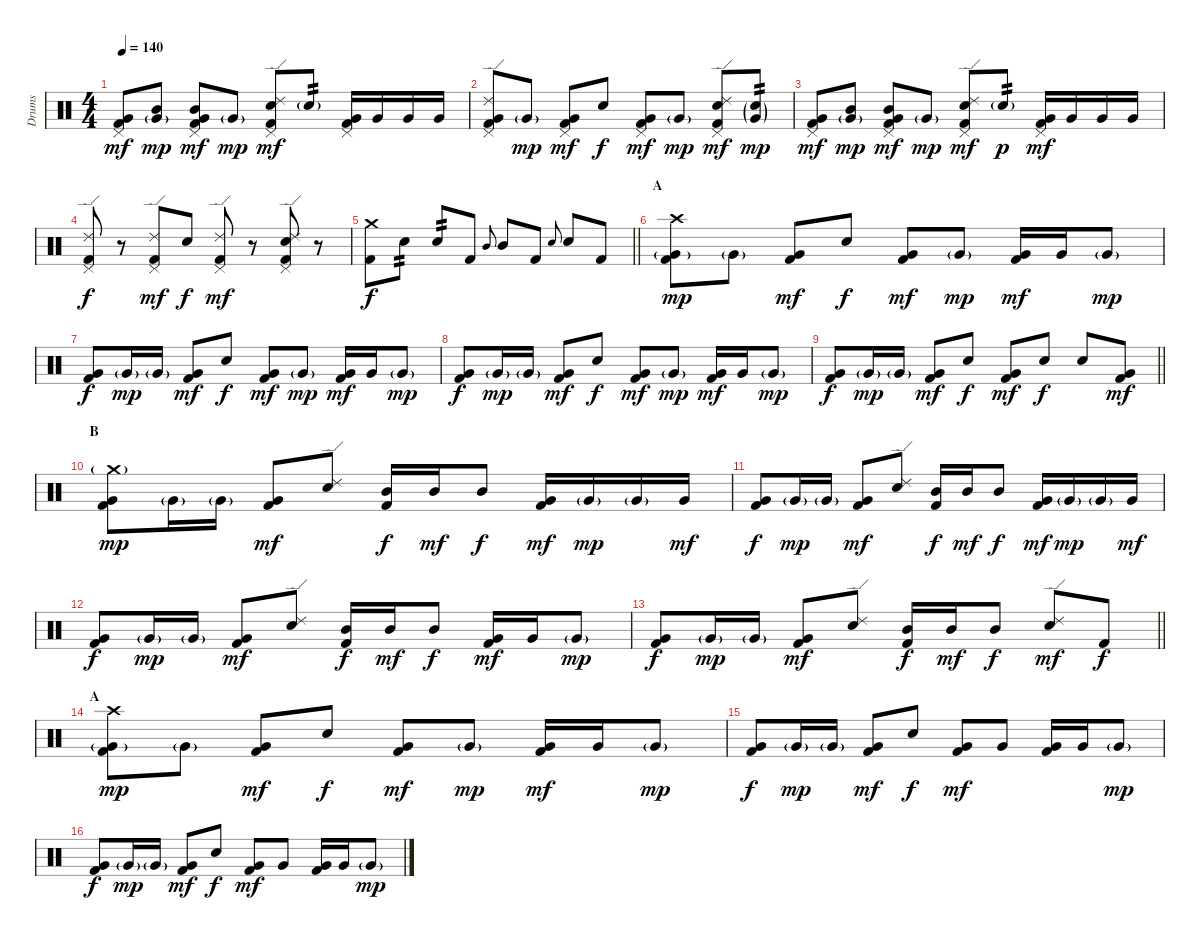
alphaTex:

\track ("Drums" "Drums") {instrument percussion}
\staff {score}
\articulation defaults
\ts (4 4)
\tempo 140
\clef neutral
\ks c
("Pedal Hi-Hat (hit)" "Very Low Tom (hit)" "Kick (hit) 2").8{dy mf} ("Mid Tom (hit)" "Very Low Tom (hit)"{g}).8{dy mp} ("Pedal Hi-Hat (hit)" "Mid Tom (hit)" "Very Low Tom (hit)" "Kick (hit) 2").8{dy mf} "Very Low Tom (hit)"{g}.8{dy mp} ("Ride (edge) 2" "Pedal Hi-Hat (hit)" "Snare (hit) 2" "Kick (hit) 2").8{dy mf} "Snare (hit) 2"{g}.8{tp 2} ("Pedal Hi-Hat (hit)" "Very Low Tom (hit)" "Kick (hit) 2").16 "Very Low Tom (hit)".16 "Very Low Tom (hit)".16 "Very Low Tom (hit)".16 |
("Ride (edge) 2" "Pedal Hi-Hat (hit)" "Very Low Tom (hit)" "Kick (hit) 2").8 "Very Low Tom (hit)"{g}.8{dy mp} ("Pedal Hi-Hat (hit)" "Very Low Tom (hit)" "Kick (hit) 2").8{dy mf} "Snare (hit) 2".8{dy f} ("Pedal Hi-Hat (hit)" "Very Low Tom (hit)" "Kick (hit) 2").8{dy mf} "Very Low Tom (hit)"{g}.8{dy mp} ("Ride (edge) 2" "Pedal Hi-Hat (hit)" "Snare (hit) 2" "Kick (hit) 2").8{dy mf} ("Snare (hit) 2"{g} "Very Low Tom (hit)"{g}).8{tp 2 dy mp} |
("Pedal Hi-Hat (hit)" "Very Low Tom (hit)" "Kick (hit) 2").8{dy mf} ("Mid Tom (hit)" "Very Low Tom (hit)"{g}).8{dy mp} ("Pedal Hi-Hat (hit)" "Mid Tom (hit)" "Very Low Tom (hit)" "Kick (hit) 2").8{dy mf} "Very Low Tom (hit)"{g}.8{dy mp} ("Ride (edge) 2" "Pedal Hi-Hat (hit)" "Snare (hit) 2" "Kick (hit) 2").8{dy mf} "Snare (hit) 2"{g}.8{tp 2 dy p} ("Pedal Hi-Hat (hit)" "Very Low Tom (hit)" "Kick (hit) 2").16{dy mf} "Very Low Tom (hit)".16 "Very Low Tom (hit)".16 "Very Low Tom (hit)".16 |
("Ride (edge) 2" "Pedal Hi-Hat (hit)" "Kick (hit) 2").8{dy f} r.8 ("Ride (edge) 2" "Pedal Hi-Hat (hit)" "Kick (hit) 2").8{dy mf} "Snare (hit) 2".8{dy f} ("Ride (edge) 2" "Pedal Hi-Hat (hit)" "Kick (hit) 2").8{dy mf} r.8 ("Ride (edge) 2" "Pedal Hi-Hat (hit)" "Snare (hit) 2" "Kick (hit) 2").8 r.8 |
\barLineRight lightlight
("Crash medium (hit)" "Kick (hit) 2").8{dy f} "Snare (hit) 2".8{tp 2} "Snare (hit) 2".8{tp 2} "Kick (hit) 2".8 "Mid Tom (hit)".8{gr onbeat} "Mid Tom (hit)".8 "Kick (hit) 2".8 "Snare (hit) 2".8{gr onbeat} "Snare (hit) 2".8 "Kick (hit) 2".8 |
\section ("" "A")
("Crash high (hit)" "Very Low Tom (hit)"{g} "Kick (hit) 2").8{dy mp} "Very Low Tom (hit)"{g}.8 ("Very Low Tom (hit)" "Kick (hit) 2").8{dy mf} "Snare (hit) 2".8{dy f} ("Very Low Tom (hit)" "Kick (hit) 2").8{dy mf} "Very Low Tom (hit)"{g}.8{dy mp} ("Very Low Tom (hit)" "Kick (hit) 2").16{dy mf} "Very Low Tom (hit)".16 "Very Low Tom (hit)"{g}.8{dy mp} |
("Very Low Tom (hit)" "Kick (hit) 2").8{dy f} "Very Low Tom (hit)"{g}.16{dy mp} "Very Low Tom (hit)"{g}.16 ("Very Low Tom (hit)" "Kick (hit) 2").8{dy mf} "Snare (hit) 2".8{dy f} ("Very Low Tom (hit)" "Kick (hit) 2").8{dy mf} "Very Low Tom (hit)"{g}.8{dy mp} ("Very Low Tom (hit)" "Kick (hit) 2").16{dy mf} "Very Low Tom (hit)".16 "Very Low Tom (hit)"{g}.8{dy mp} |
("Very Low Tom (hit)" "Kick (hit) 2").8{dy f} "Very Low Tom (hit)"{g}.16{dy mp} "Very Low Tom (hit)"{g}.16 ("Very Low Tom (hit)" "Kick (hit) 2").8{dy mf} "Snare (hit) 2".8{dy f} ("Very Low Tom (hit)" "Kick (hit) 2").8{dy mf} "Very Low Tom (hit)"{g}.8{dy mp} ("Very Low Tom (hit)" "Kick (hit) 2").16{dy mf} "Very Low Tom (hit)".16 "Very Low Tom (hit)"{g}.8{dy mp} |
\barLineRight lightlight
("Very Low Tom (hit)" "Kick (hit) 2").8{dy f} "Very Low Tom (hit)"{g}.16{dy mp} "Very Low Tom (hit)"{g}.16 ("Very Low Tom (hit)" "Kick (hit) 2").8{dy mf} "Snare (hit) 2".8{dy f} ("Very Low Tom (hit)" "Kick (hit) 2").8{dy mf} "Snare (hit) 2".8{dy f} "Snare (hit) 2".8 ("Very Low Tom (hit)" "Kick (hit) 2").8{dy mf} |
\section ("" "B")
("Crash medium (hit)"{g} "Very Low Tom (hit)" "Kick (hit) 2").8{dy mp} "Very Low Tom (hit)"{g}.16 "Very Low Tom (hit)"{g}.16 ("Very Low Tom (hit)" "Kick (hit) 2").8{dy mf} ("Ride (edge) 2" "Snare (hit) 2").8 ("Mid Tom (hit)" "Kick (hit) 2").16{dy f} "Mid Tom (hit)".16{dy mf} "Mid Tom (hit)".8{dy f} ("Very Low Tom (hit)" "Kick (hit) 2").16{dy mf} "Very Low Tom (hit)"{g}.16{dy mp} "Very Low Tom (hit)"{g}.16 "Very Low Tom (hit)".16{dy mf} |
("Very Low Tom (hit)" "Kick (hit) 2").8{dy f} "Very Low Tom (hit)"{g}.16{dy mp} "Very Low Tom (hit)"{g}.16 ("Very Low Tom (hit)" "Kick (hit) 2").8{dy mf} ("Ride (edge) 2" "Snare (hit) 2").8 ("Mid Tom (hit)" "Kick (hit) 2").16{dy f} "Mid Tom (hit)".16{dy mf} "Mid Tom (hit)".8{dy f} ("Very Low Tom (hit)" "Kick (hit) 2").16{dy mf} "Very Low Tom (hit)"{g}.16{dy mp} "Very Low Tom (hit)"{g}.16 "Very Low Tom (hit)".16{dy mf} |
("Very Low Tom (hit)" "Kick (hit) 2").8{dy f} "Very Low Tom (hit)"{g}.16{dy mp} "Very Low Tom (hit)"{g}.16 ("Very Low Tom (hit)" "Kick (hit) 2").8{dy mf} ("Ride (edge) 2" "Snare (hit) 2").8 ("Mid Tom (hit)" "Kick (hit) 2").16{dy f} "Mid Tom (hit)".16{dy mf} "Mid Tom (hit)".8{dy f} ("Very Low Tom (hit)" "Kick (hit) 2").16{dy mf} "Very Low Tom (hit)".16 "Very Low Tom (hit)"{g}.8{dy mp} |
\barLineRight lightlight
("Very Low Tom (hit)" "Kick (hit) 2").8{dy f} "Very Low Tom (hit)"{g}.16{dy mp} "Very Low Tom (hit)"{g}.16 ("Very Low Tom (hit)" "Kick (hit) 2").8{dy mf} ("Ride (edge) 2" "Snare (hit) 2").8 ("Mid Tom (hit)" "Kick (hit) 2").16{dy f} "Mid Tom (hit)".16{dy mf} "Mid Tom (hit)".8{dy f} ("Ride (edge) 2" "Snare (hit) 2").8{dy mf} "Kick (hit) 2".8{dy f} |
\section ("" "A")
("Crash high (hit)" "Very Low Tom (hit)"{g} "Kick (hit) 2").8{dy mp} "Very Low Tom (hit)"{g}.8 ("Very Low Tom (hit)" "Kick (hit) 2").8{dy mf} "Snare (hit) 2".8{dy f} ("Very Low Tom (hit)" "Kick (hit) 2").8{dy mf} "Very Low Tom (hit)"{g}.8{dy mp} ("Very Low Tom (hit)" "Kick (hit) 2").16{dy mf} "Very Low Tom (hit)".16 "Very Low Tom (hit)"{g}.8{dy mp} |
("Very Low Tom (hit)" "Kick (hit) 2").8{dy f} "Very Low Tom (hit)"{g}.16{dy mp} "Very Low Tom (hit)"{g}.16 ("Very Low Tom (hit)" "Kick (hit) 2").8{dy mf} "Snare (hit) 2".8{dy f} ("Very Low Tom (hit)" "Kick (hit) 2").8{dy mf} "Very Low Tom (hit)".8 ("Very Low Tom (hit)" "Kick (hit) 2").16 "Very Low Tom (hit)".16 "Very Low Tom (hit)"{g}.8{dy mp} |
("Very Low Tom (hit)" "Kick (hit) 2").8{dy f} "Very Low Tom (hit)"{g}.16{dy mp} "Very Low Tom (hit)"{g}.16 ("Very Low Tom (hit)" "Kick (hit) 2").8{dy mf} "Snare (hit) 2".8{dy f} ("Very Low Tom (hit)" "Kick (hit) 2").8{dy mf} "Very Low Tom (hit)".8 ("Very Low Tom (hit)" "Kick (hit) 2").16 "Very Low Tom (hit)".16 "Very Low Tom (hit)"{g}.8{dy mp}
